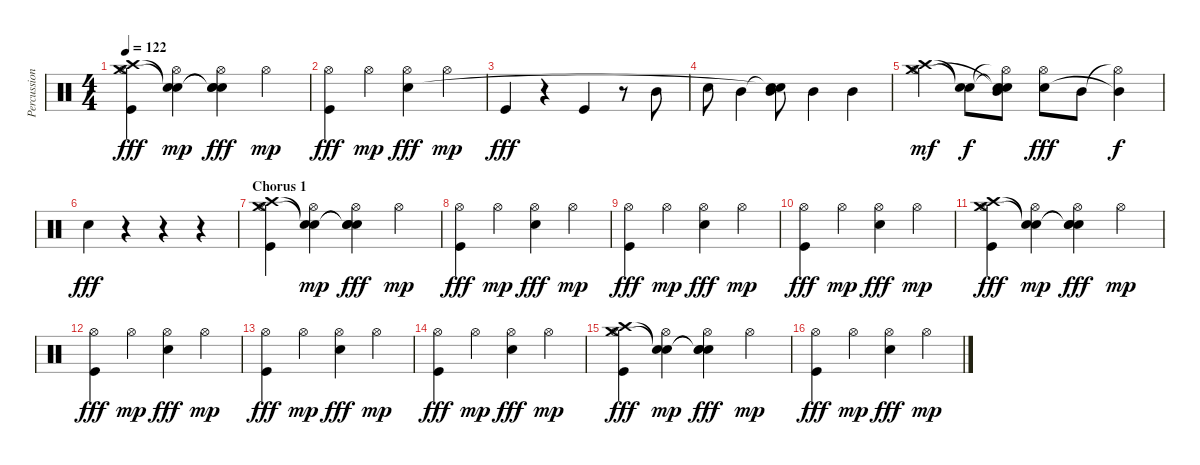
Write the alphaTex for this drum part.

\track ("Percussion" "Percussion") {instrument percussion}
\staff {score}
\articulation defaults
\ts (4 4)
\tempo 122
\clef neutral
\ks c
("Hi-Hat (open)" "Crash high (hit)" "Crash medium (hit)" "Kick (hit)").4{dy fff} ("Hi-Hat (open)" "Snare (hit)"{t} "Snare (hit)"{t}).4{dy mp} ("Hi-Hat (open)" "Snare (hit)"{t} "Snare (hit)"{t} "Snare (hit) 2").4{dy fff} "Hi-Hat (open)".4{dy mp} |
("Hi-Hat (open)" "Kick (hit)").4{dy fff} "Hi-Hat (open)".4{dy mp} ("Hi-Hat (open)" "Snare (hit) 2").4{dy fff} "Hi-Hat (open)".4{dy mp} |
"Kick (hit)".4{dy fff} r.4 "Kick (hit)".4 r.8 "Mid Tom (hit)".8 |
"Snare (hit) 2".8 "Mid Tom (hit)".4 ("Snare (hit)"{t} "Snare (hit)"{t} "Mid Tom (hit)").8 "Mid Tom (hit)".4 "Mid Tom (hit)".4 |
("Hi-Hat (open)" "Crash high (hit)" "Crash medium (hit)").4{dy mf} ("Snare (hit)"{t} "Snare (hit)"{t}).8{dy f} ("Hi-Hat (open)"{t} "Snare (hit)"{t} "Snare (hit)"{t} "Mid Tom (hit)").8 ("Hi-Hat (open)" "Snare (hit) 2").8{dy fff} "Mid Tom (hit)".8 ("Hi-Hat (open)"{t} "Mid Tom (hit)"{t}).4{dy f} |
"Snare (hit) 2".4{dy fff} r.4 r.4 r.4 |
\section ("" "Chorus 1")
("Hi-Hat (open)" "Crash high (hit)" "Crash medium (hit)" "Kick (hit)").4 ("Hi-Hat (open)" "Snare (hit)"{t} "Snare (hit)"{t}).4{dy mp} ("Hi-Hat (open)" "Snare (hit)"{t} "Snare (hit)"{t} "Snare (hit) 2").4{dy fff} "Hi-Hat (open)".4{dy mp} |
("Hi-Hat (open)" "Kick (hit)").4{dy fff} "Hi-Hat (open)".4{dy mp} ("Hi-Hat (open)" "Snare (hit) 2").4{dy fff} "Hi-Hat (open)".4{dy mp} |
("Hi-Hat (open)" "Kick (hit)").4{dy fff} "Hi-Hat (open)".4{dy mp} ("Hi-Hat (open)" "Snare (hit) 2").4{dy fff} "Hi-Hat (open)".4{dy mp} |
("Hi-Hat (open)" "Kick (hit)").4{dy fff} "Hi-Hat (open)".4{dy mp} ("Hi-Hat (open)" "Snare (hit) 2").4{dy fff} "Hi-Hat (open)".4{dy mp} |
("Hi-Hat (open)" "Crash high (hit)" "Crash medium (hit)" "Kick (hit)").4{dy fff} ("Hi-Hat (open)" "Snare (hit)"{t} "Snare (hit)"{t}).4{dy mp} ("Hi-Hat (open)" "Snare (hit)"{t} "Snare (hit)"{t} "Snare (hit) 2").4{dy fff} "Hi-Hat (open)".4{dy mp} |
("Hi-Hat (open)" "Kick (hit)").4{dy fff} "Hi-Hat (open)".4{dy mp} ("Hi-Hat (open)" "Snare (hit) 2").4{dy fff} "Hi-Hat (open)".4{dy mp} |
("Hi-Hat (open)" "Kick (hit)").4{dy fff} "Hi-Hat (open)".4{dy mp} ("Hi-Hat (open)" "Snare (hit) 2").4{dy fff} "Hi-Hat (open)".4{dy mp} |
("Hi-Hat (open)" "Kick (hit)").4{dy fff} "Hi-Hat (open)".4{dy mp} ("Hi-Hat (open)" "Snare (hit) 2").4{dy fff} "Hi-Hat (open)".4{dy mp} |
("Hi-Hat (open)" "Crash high (hit)" "Crash medium (hit)" "Kick (hit)").4{dy fff} ("Hi-Hat (open)" "Snare (hit)"{t} "Snare (hit)"{t}).4{dy mp} ("Hi-Hat (open)" "Snare (hit)"{t} "Snare (hit)"{t} "Snare (hit) 2").4{dy fff} "Hi-Hat (open)".4{dy mp} |
("Hi-Hat (open)" "Kick (hit)").4{dy fff} "Hi-Hat (open)".4{dy mp} ("Hi-Hat (open)" "Snare (hit) 2").4{dy fff} "Hi-Hat (open)".4{dy mp}
